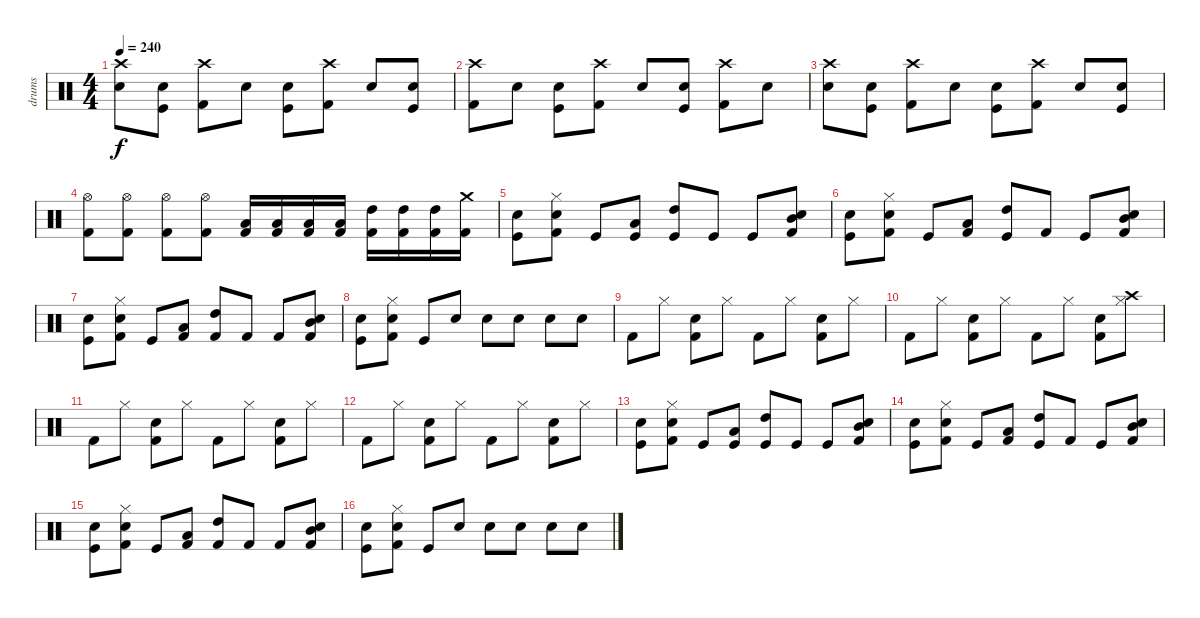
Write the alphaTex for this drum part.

\track ("drums" "drums") {instrument percussion}
\staff {score}
\articulation defaults
\ts (4 4)
\tempo 240
\clef neutral
\ks c
("Crash high (hit)" "Electric Snare (hit)").8{dy f} ("Electric Snare (hit)" "Kick (hit)").8 ("Crash high (hit)" "Kick (hit) 2").8 "Electric Snare (hit)".8 ("Electric Snare (hit)" "Kick (hit)").8 ("Crash high (hit)" "Kick (hit) 2").8 "Electric Snare (hit)".8 ("Electric Snare (hit)" "Kick (hit)").8 |
("Crash high (hit)" "Kick (hit) 2").8 "Electric Snare (hit)".8 ("Electric Snare (hit)" "Kick (hit)").8 ("Crash high (hit)" "Kick (hit) 2").8 "Electric Snare (hit)".8 ("Electric Snare (hit)" "Kick (hit)").8 ("Crash high (hit)" "Kick (hit) 2").8 "Electric Snare (hit)".8 |
("Crash high (hit)" "Electric Snare (hit)").8 ("Electric Snare (hit)" "Kick (hit)").8 ("Crash high (hit)" "Kick (hit) 2").8 "Electric Snare (hit)".8 ("Electric Snare (hit)" "Kick (hit)").8 ("Crash high (hit)" "Kick (hit) 2").8 "Electric Snare (hit)".8 ("Electric Snare (hit)" "Kick (hit)").8 |
("Hi-Hat (open)" "Kick (hit) 2").8 ("Hi-Hat (open)" "Kick (hit) 2").8 ("Hi-Hat (open)" "Kick (hit) 2").8 ("Hi-Hat (open)" "Kick (hit) 2").8 ("Low Tom (hit)" "Kick (hit) 2").16 ("Low Tom (hit)" "Kick (hit) 2").16 ("Low Tom (hit)" "Kick (hit) 2").16 ("Low Tom (hit)" "Kick (hit) 2").16 ("High Tom (hit)" "Kick (hit) 2").16 ("High Tom (hit)" "Kick (hit) 2").16 ("High Tom (hit)" "Kick (hit) 2").16 ("Crash medium (hit)" "Kick (hit) 2").16 |
("Electric Snare (hit)" "Kick (hit)").8 ("Hi-Hat (closed)" "Electric Snare (hit)" "Kick (hit) 2").8 "Kick (hit)".8 ("Low Tom (hit)" "Kick (hit)").8 ("High Tom (hit)" "Kick (hit)").8 "Kick (hit)".8 "Kick (hit)".8 ("Mid Tom (hit)" "Snare (hit) 2" "Kick (hit) 2").8 |
("Electric Snare (hit)" "Kick (hit)").8 ("Hi-Hat (closed)" "Electric Snare (hit)" "Kick (hit) 2").8 "Kick (hit)".8 ("Low Tom (hit)" "Kick (hit) 2").8 ("High Tom (hit)" "Kick (hit)").8 "Kick (hit) 2".8 "Kick (hit)".8 ("Mid Tom (hit)" "Snare (hit) 2" "Kick (hit) 2").8 |
("Electric Snare (hit)" "Kick (hit)").8 ("Hi-Hat (closed)" "Electric Snare (hit)" "Kick (hit) 2").8 "Kick (hit)".8 ("Low Tom (hit)" "Kick (hit) 2").8 ("High Tom (hit)" "Kick (hit) 2").8 "Kick (hit) 2".8 "Kick (hit) 2".8 ("Mid Tom (hit)" "Snare (hit) 2" "Kick (hit) 2").8 |
("Electric Snare (hit)" "Kick (hit)").8 ("Hi-Hat (closed)" "Electric Snare (hit)" "Kick (hit) 2").8 "Kick (hit)".8 "Electric Snare (hit)".8 "Electric Snare (hit)".8 "Electric Snare (hit)".8 "Electric Snare (hit)".8 "Electric Snare (hit)".8 |
"Kick (hit) 2".8 "Hi-Hat (closed)".8 ("Snare (hit) 2" "Kick (hit) 2").8 "Hi-Hat (closed)".8 "Kick (hit) 2".8 "Hi-Hat (closed)".8 ("Snare (hit) 2" "Kick (hit) 2").8 "Hi-Hat (closed)".8 |
"Kick (hit) 2".8 "Hi-Hat (closed)".8 ("Snare (hit) 2" "Kick (hit) 2").8 "Hi-Hat (closed)".8 "Kick (hit) 2".8 "Hi-Hat (closed)".8 ("Snare (hit) 2" "Kick (hit) 2").8 ("Crash high (hit)" "Hi-Hat (closed)").8 |
"Kick (hit) 2".8 "Hi-Hat (closed)".8 ("Snare (hit) 2" "Kick (hit) 2").8 "Hi-Hat (closed)".8 "Kick (hit) 2".8 "Hi-Hat (closed)".8 ("Snare (hit) 2" "Kick (hit) 2").8 "Hi-Hat (closed)".8 |
"Kick (hit) 2".8 "Hi-Hat (closed)".8 ("Snare (hit) 2" "Kick (hit) 2").8 "Hi-Hat (closed)".8 "Kick (hit) 2".8 "Hi-Hat (closed)".8 ("Snare (hit) 2" "Kick (hit) 2").8 "Hi-Hat (closed)".8 |
("Electric Snare (hit)" "Kick (hit)").8 ("Hi-Hat (closed)" "Electric Snare (hit)" "Kick (hit) 2").8 "Kick (hit)".8 ("Low Tom (hit)" "Kick (hit)").8 ("High Tom (hit)" "Kick (hit)").8 "Kick (hit)".8 "Kick (hit)".8 ("Mid Tom (hit)" "Snare (hit) 2" "Kick (hit) 2").8 |
("Electric Snare (hit)" "Kick (hit)").8 ("Hi-Hat (closed)" "Electric Snare (hit)" "Kick (hit) 2").8 "Kick (hit)".8 ("Low Tom (hit)" "Kick (hit) 2").8 ("High Tom (hit)" "Kick (hit)").8 "Kick (hit) 2".8 "Kick (hit)".8 ("Mid Tom (hit)" "Snare (hit) 2" "Kick (hit) 2").8 |
("Electric Snare (hit)" "Kick (hit)").8 ("Hi-Hat (closed)" "Electric Snare (hit)" "Kick (hit) 2").8 "Kick (hit)".8 ("Low Tom (hit)" "Kick (hit) 2").8 ("High Tom (hit)" "Kick (hit) 2").8 "Kick (hit) 2".8 "Kick (hit) 2".8 ("Mid Tom (hit)" "Snare (hit) 2" "Kick (hit) 2").8 |
("Electric Snare (hit)" "Kick (hit)").8 ("Hi-Hat (closed)" "Electric Snare (hit)" "Kick (hit) 2").8 "Kick (hit)".8 "Electric Snare (hit)".8 "Electric Snare (hit)".8 "Electric Snare (hit)".8 "Electric Snare (hit)".8 "Electric Snare (hit)".8
